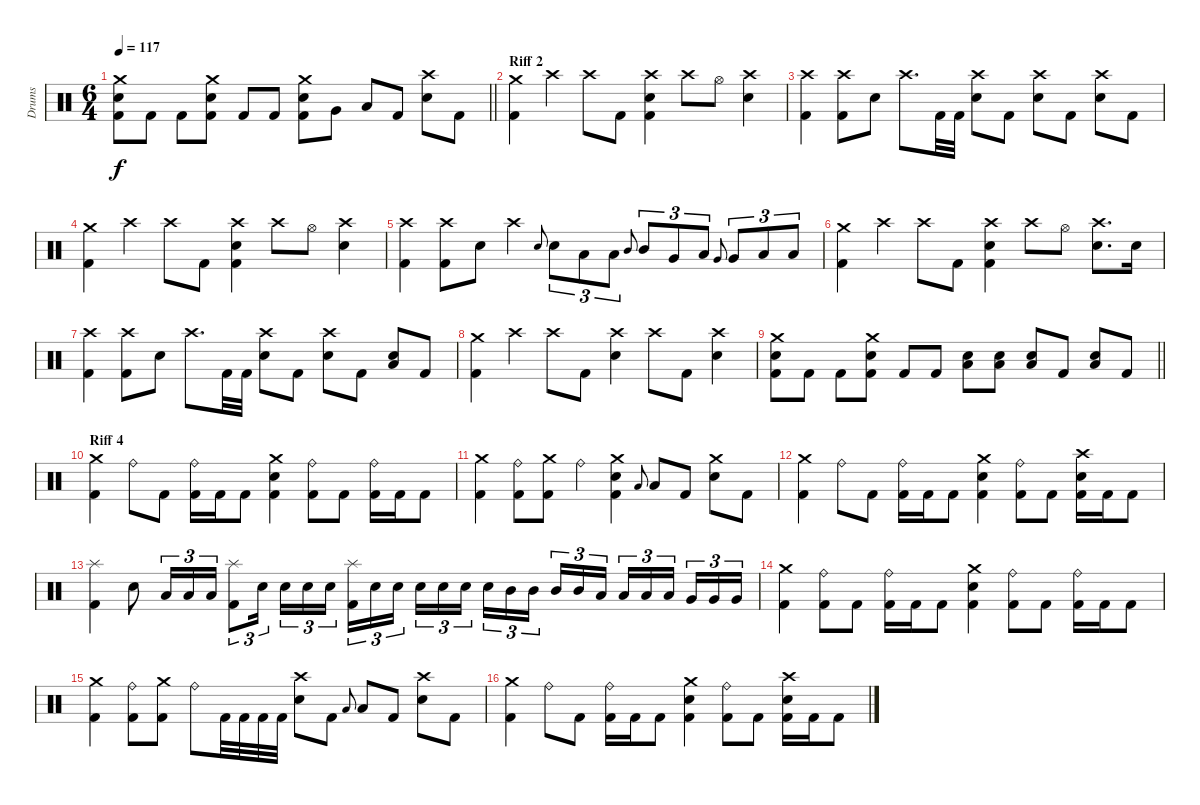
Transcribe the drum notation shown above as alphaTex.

\track ("Drums" "Drums") {instrument percussion}
\staff {score}
\articulation defaults
\ts (6 4)
\tempo 117
\clef neutral
\barLineRight lightlight
\ks c
("Crash medium (hit)" "Electric Snare (hit)" "Kick (hit) 2").8{dy f} "Kick (hit) 2".8 "Kick (hit) 2".8 ("Crash medium (hit)" "Electric Snare (hit)" "Kick (hit) 2").8 "Kick (hit) 2".8 "Kick (hit) 2".8 ("Crash medium (hit)" "Electric Snare (hit)" "Kick (hit) 2").8 "Very Low Tom (hit)".8 "Low Floor Tom (hit)".8 "Kick (hit) 2".8 ("Electric Snare (hit)" "Crash high (hit)").8 "Kick (hit) 2".8 |
\section ("" "Riff 2")
("Kick (hit) 2" "Crash medium (hit)").4 "Crash high (hit)".4 "Crash high (hit)".8 "Kick (hit) 2".8 ("Crash high (hit)" "Kick (hit) 2" "Electric Snare (hit)").4 "Crash high (hit)".8 "Hi-Hat (open)".8 ("Electric Snare (hit)" "Crash high (hit)").4 |
("Kick (hit) 2" "Crash high (hit)").4 ("Kick (hit) 2" "Crash high (hit)").8 "Electric Snare (hit)".8 "Crash high (hit)".8{d} "Kick (hit) 2".32 "Kick (hit) 2".32 ("Electric Snare (hit)" "Crash high (hit)").8 "Kick (hit) 2".8 ("Electric Snare (hit)" "Crash high (hit)").8 "Kick (hit) 2".8 ("Electric Snare (hit)" "Crash high (hit)").8 "Kick (hit) 2".8 |
("Kick (hit) 2" "Crash medium (hit)").4 "Crash high (hit)".4 "Crash high (hit)".8 "Kick (hit) 2".8 ("Crash high (hit)" "Kick (hit) 2" "Electric Snare (hit)").4 "Crash high (hit)".8 "Hi-Hat (open)".8 ("Electric Snare (hit)" "Crash high (hit)").4 |
("Kick (hit) 2" "Crash high (hit)").4 ("Kick (hit) 2" "Crash high (hit)").8 "Electric Snare (hit)".8 "Crash high (hit)".4 "Electric Snare (hit)".8{gr onbeat} "Electric Snare (hit)".8{tu (3 2)} "Low Tom (hit)".8{tu (3 2)} "Low Tom (hit)".8{tu (3 2)} "Mid Tom (hit)".8{gr onbeat} "Mid Tom (hit)".8{tu (3 2)} "Very Low Tom (hit)".8{tu (3 2)} "Low Floor Tom (hit)".8{tu (3 2)} "Very Low Tom (hit)".8{gr onbeat} "Very Low Tom (hit)".8{tu (3 2)} "Low Floor Tom (hit)".8{tu (3 2)} "Low Floor Tom (hit)".8{tu (3 2)} |
("Kick (hit) 2" "Crash medium (hit)").4 "Crash high (hit)".4 "Crash high (hit)".8 "Kick (hit) 2".8 ("Crash high (hit)" "Kick (hit) 2" "Electric Snare (hit)").4 "Crash high (hit)".8 "Hi-Hat (open)".8 ("Electric Snare (hit)" "Crash high (hit)").8{d} "Electric Snare (hit)".16 |
("Kick (hit) 2" "Crash high (hit)").4 ("Kick (hit) 2" "Crash high (hit)").8 "Electric Snare (hit)".8 "Crash high (hit)".8{d} "Kick (hit) 2".32 "Kick (hit) 2".32 ("Electric Snare (hit)" "Crash high (hit)").8 "Kick (hit) 2".8 ("Electric Snare (hit)" "Crash high (hit)").8 "Kick (hit) 2".8 ("Electric Snare (hit)" "Low Floor Tom (hit)").8 "Kick (hit) 2".8 |
("Kick (hit) 2" "Crash medium (hit)").4 "Crash high (hit)".4 "Crash high (hit)".8 "Kick (hit) 2".8 ("Crash high (hit)" "Electric Snare (hit)").4 "Crash high (hit)".8 "Kick (hit) 2".8 ("Electric Snare (hit)" "Crash high (hit)").4 |
\barLineRight lightlight
("Crash medium (hit)" "Electric Snare (hit)" "Kick (hit) 2").8 "Kick (hit) 2".8 "Kick (hit) 2".8 ("Crash medium (hit)" "Electric Snare (hit)" "Kick (hit) 2").8 "Kick (hit) 2".8 "Kick (hit) 2".8 ("Electric Snare (hit)" "Low Floor Tom (hit)").8 ("Electric Snare (hit)" "Low Floor Tom (hit)").8 ("Electric Snare (hit)" "Low Floor Tom (hit)").8 "Kick (hit) 2".8 ("Electric Snare (hit)" "Low Floor Tom (hit)").8 "Kick (hit) 2".8 |
\section ("" "Riff 4")
("Crash medium (hit)" "Kick (hit) 2").4 "Ride (bell)".8 "Kick (hit) 2".8 ("Kick (hit) 2" "Ride (bell)").16 "Kick (hit) 2".16 "Kick (hit) 2".8 ("Electric Snare (hit)" "Crash medium (hit)" "Kick (hit) 2").4 ("Ride (bell)" "Kick (hit) 2").8 "Kick (hit) 2".8 ("Ride (bell)" "Kick (hit) 2").16 "Kick (hit) 2".16 "Kick (hit) 2".8 |
("Kick (hit) 2" "Crash medium (hit)").4 ("Ride (bell)" "Kick (hit) 2").8 ("Crash medium (hit)" "Kick (hit) 2").8 "Ride (bell)".4 ("Kick (hit) 2" "Electric Snare (hit)" "Crash medium (hit)").4 "Low Tom (hit)".8{gr onbeat} "Low Tom (hit)".8 "Kick (hit) 2".8 ("Crash medium (hit)" "Electric Snare (hit)").8 "Kick (hit) 2".8 |
("Crash medium (hit)" "Kick (hit) 2").4 "Ride (bell)".8 "Kick (hit) 2".8 ("Kick (hit) 2" "Ride (bell)").16 "Kick (hit) 2".16 "Kick (hit) 2".8 ("Electric Snare (hit)" "Crash medium (hit)" "Kick (hit) 2").4 ("Ride (bell)" "Kick (hit) 2").8 "Kick (hit) 2".8 ("Crash high (hit)" "Electric Snare (hit)" "Kick (hit) 2").16 "Kick (hit) 2".16 "Kick (hit) 2".8 |
("Splash (hit)" "Kick (hit) 2").4 "Electric Snare (hit)".8 "Low Tom (hit)".16{tu (3 2)} "Low Tom (hit)".16{tu (3 2)} "Low Tom (hit)".16{tu (3 2)} ("Splash (hit)" "Kick (hit) 2").8{tu (3 2)} "Electric Snare (hit)".16{tu (3 2) beam splitsecondary} "Electric Snare (hit)".16{tu (3 2)} "Electric Snare (hit)".16{tu (3 2)} "Electric Snare (hit)".16{tu (3 2)} ("Splash (hit)" "Kick (hit) 2").16{tu (3 2)} "Electric Snare (hit)".16{tu (3 2)} "Electric Snare (hit)".16{tu (3 2) beam splitsecondary} "Electric Snare (hit)".16{tu (3 2)} "Electric Snare (hit)".16{tu (3 2)} "Electric Snare (hit)".16{tu (3 2) beam splitsecondary} "Electric Snare (hit)".16{tu (3 2)} "Mid Tom (hit)".16{tu (3 2)} "Mid Tom (hit)".16{tu (3 2) beam splitsecondary} "Mid Tom (hit)".16{tu (3 2)} "Mid Tom (hit)".16{tu (3 2)} "Low Tom (hit)".16{tu (3 2) beam splitsecondary} "Low Tom (hit)".16{tu (3 2)} "Low Tom (hit)".16{tu (3 2)} "Low Tom (hit)".16{tu (3 2) beam splitsecondary} "Very Low Tom (hit)".16{tu (3 2)} "Very Low Tom (hit)".16{tu (3 2)} "Very Low Tom (hit)".16{tu (3 2)} |
("Crash medium (hit)" "Kick (hit) 2").4 ("Ride (bell)" "Kick (hit) 2").8 "Kick (hit) 2".8 ("Kick (hit) 2" "Ride (bell)").16 "Kick (hit) 2".16 "Kick (hit) 2".8 ("Electric Snare (hit)" "Crash medium (hit)" "Kick (hit) 2").4 ("Ride (bell)" "Kick (hit) 2").8 "Kick (hit) 2".8 ("Ride (bell)" "Kick (hit) 2").16 "Kick (hit) 2".16 "Kick (hit) 2".8 |
("Kick (hit) 2" "Crash medium (hit)").4 ("Ride (bell)" "Kick (hit) 2").8 ("Crash medium (hit)" "Kick (hit) 2").8 "Ride (bell)".8 "Kick (hit) 2".32 "Kick (hit) 2".32 "Kick (hit) 2".32 "Kick (hit) 2".32 ("Electric Snare (hit)" "Crash high (hit)").8 "Kick (hit) 2".8 "Low Tom (hit)".8{gr onbeat} "Low Tom (hit)".8 "Kick (hit) 2".8 ("Crash high (hit)" "Electric Snare (hit)").8 "Kick (hit) 2".8 |
("Crash medium (hit)" "Kick (hit) 2").4 "Ride (bell)".8 "Kick (hit) 2".8 ("Kick (hit) 2" "Ride (bell)").16 "Kick (hit) 2".16 "Kick (hit) 2".8 ("Electric Snare (hit)" "Crash medium (hit)" "Kick (hit) 2").4 ("Ride (bell)" "Kick (hit) 2").8 "Kick (hit) 2".8 ("Crash high (hit)" "Electric Snare (hit)" "Kick (hit) 2").16 "Kick (hit) 2".16 "Kick (hit) 2".8
